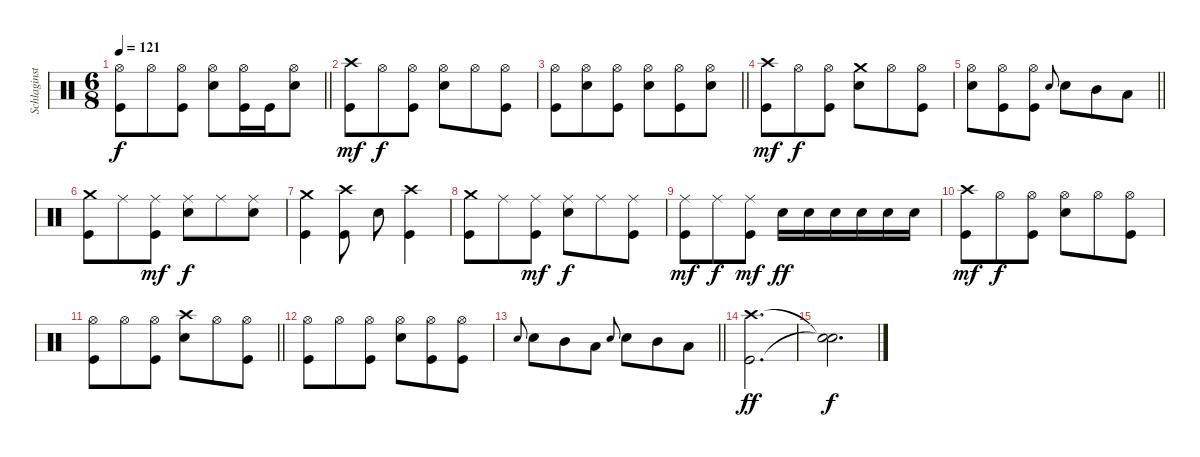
\track ("Schlaginstrumente - Auswahl" "Schlaginst") {instrument percussion}
\staff {score}
\articulation defaults
\ts (6 8)
\tempo 121
\clef neutral
\barLineRight lightlight
\ks c
("Hi-Hat (open)" "Kick (hit)").8{dy f} "Hi-Hat (open)".8 ("Hi-Hat (open)" "Kick (hit)").8 ("Hi-Hat (open)" "Snare (hit) 2").8 ("Hi-Hat (open)" "Kick (hit)").16 "Kick (hit)".16 ("Hi-Hat (open)" "Snare (hit) 2").8 |
("Crash high (hit)" "Kick (hit)").8{dy mf} "Hi-Hat (open)".8{dy f} ("Hi-Hat (open)" "Kick (hit)").8 ("Hi-Hat (open)" "Snare (hit) 2").8 "Hi-Hat (open)".8 ("Hi-Hat (open)" "Kick (hit)").8 |
\barLineRight lightlight
("Hi-Hat (open)" "Kick (hit)").8 ("Hi-Hat (open)" "Snare (hit) 2").8 ("Hi-Hat (open)" "Kick (hit)").8 ("Hi-Hat (open)" "Snare (hit) 2").8 ("Hi-Hat (open)" "Kick (hit)").8 ("Hi-Hat (open)" "Snare (hit) 2").8 |
("Crash high (hit)" "Kick (hit)").8{dy mf} "Hi-Hat (open)".8{dy f} ("Hi-Hat (open)" "Kick (hit)").8 ("Crash medium (hit)" "Snare (hit) 2").8 "Hi-Hat (open)".8 ("Hi-Hat (open)" "Kick (hit)").8 |
\barLineRight lightlight
("Snare (hit) 2" "Hi-Hat (open)").8 ("Kick (hit)" "Hi-Hat (open)").8 ("Kick (hit)" "Hi-Hat (open)").8 "Snare (hit) 2".8{gr onbeat} "Snare (hit) 2".8 "Mid Tom (hit)".8 "Low Tom (hit)".8 |
("Crash medium (hit)" "Kick (hit)").8 "Ride (middle)".8 ("Ride (middle)" "Kick (hit)").8{dy mf} ("Ride (middle)" "Snare (hit) 2").8{dy f} "Ride (middle)".8 ("Ride (middle)" "Snare (hit) 2").8 |
("Crash medium (hit)" "Kick (hit)").4 ("Crash high (hit)" "Kick (hit)").8 "Snare (hit) 2".8 ("Crash high (hit)" "Kick (hit)").4 |
("Crash medium (hit)" "Kick (hit)").8 "Ride (middle)".8 ("Ride (middle)" "Kick (hit)").8{dy mf} ("Ride (middle)" "Snare (hit) 2").8{dy f} "Ride (middle)".8 ("Ride (middle)" "Kick (hit)").8 |
("Ride (middle)" "Kick (hit)").8{dy mf} "Ride (middle)".8{dy f} ("Ride (middle)" "Kick (hit)").8{dy mf} "Snare (hit) 2".16{dy ff} "Snare (hit) 2".16 "Snare (hit) 2".16 "Snare (hit) 2".16 "Snare (hit) 2".16 "Snare (hit) 2".16 |
("Crash high (hit)" "Kick (hit)").8{dy mf} "Hi-Hat (open)".8{dy f} ("Hi-Hat (open)" "Kick (hit)").8 ("Hi-Hat (open)" "Snare (hit) 2").8 "Hi-Hat (open)".8 ("Hi-Hat (open)" "Kick (hit)").8 |
\barLineRight lightlight
("Hi-Hat (open)" "Kick (hit)").8 "Hi-Hat (open)".8 ("Hi-Hat (open)" "Kick (hit)").8 ("Crash high (hit)" "Snare (hit) 2").8 "Hi-Hat (open)".8 ("Hi-Hat (open)" "Kick (hit)").8 |
("Hi-Hat (open)" "Kick (hit)").8 "Hi-Hat (open)".8 ("Hi-Hat (open)" "Kick (hit)").8 ("Hi-Hat (open)" "Snare (hit) 2").8 ("Hi-Hat (open)" "Kick (hit)").8 ("Hi-Hat (open)" "Kick (hit)").8 |
\barLineRight lightlight "Snare (hit) 2".8{gr onbeat} "Snare (hit) 2".8 "Mid Tom (hit)".8 "Low Tom (hit)".8 "Snare (hit) 2".8{gr onbeat} "Snare (hit) 2".8 "Mid Tom (hit)".8 "Low Tom (hit)".8
|
("Crash high (hit)" "Kick (hit)").2{d dy ff} |
("Snare (hit)"{t} "Snare (hit)"{t}).2{d dy f}
